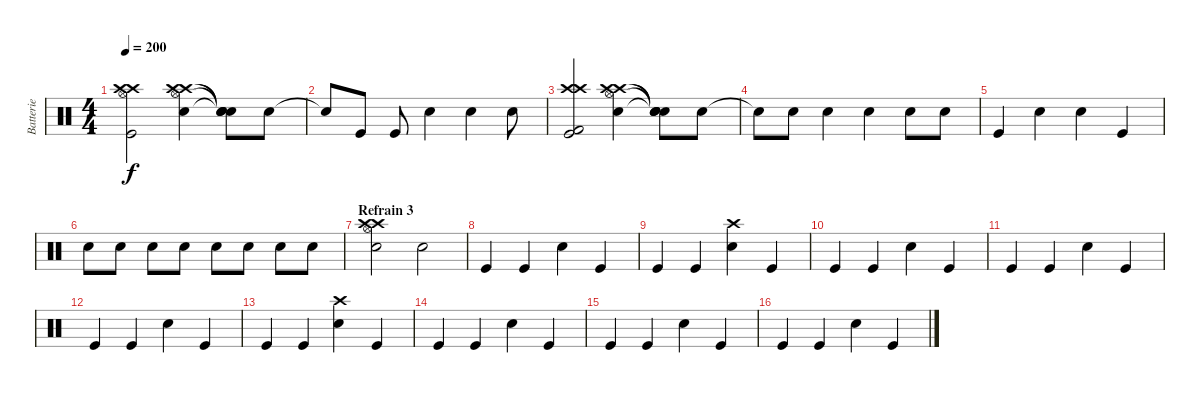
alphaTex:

\track ("Batterie" "Batterie") {instrument percussion}
\staff {score}
\articulation defaults
\ts (4 4)
\tempo 200
\clef neutral
\ks c
("Kick (hit)" "Crash high (hit)" "Crash high (hit)" "Hi-Hat (open)").2{dy f} ("Electric Snare (hit)" "Crash high (hit)" "Crash high (hit)" "Hi-Hat (open)").4 ("Snare (hit)"{t} "Snare (hit)"{t} "Snare (hit)"{t} "Snare (hit)"{t}).8 "Electric Snare (hit)".8 |
"Electric Snare (hit)"{t}.8 "Kick (hit)".8 "Kick (hit)".8 "Electric Snare (hit)".4 "Electric Snare (hit)".4 "Electric Snare (hit)".8 |
("Kick (hit)" "Crash high (hit)" "Crash high (hit)" "Kick (hit) 2").2 ("Electric Snare (hit)" "Crash high (hit)" "Crash high (hit)" "Hi-Hat (open)").4 ("Snare (hit)"{t} "Snare (hit)"{t} "Snare (hit)"{t} "Snare (hit)"{t}).8 "Electric Snare (hit)".8 |
"Electric Snare (hit)"{t}.8 "Electric Snare (hit)".8 "Electric Snare (hit)".4 "Electric Snare (hit)".4 "Electric Snare (hit)".8 "Electric Snare (hit)".8 |
"Kick (hit)".4 "Electric Snare (hit)".4 "Electric Snare (hit)".4 "Kick (hit)".4 |
"Electric Snare (hit)".8 "Electric Snare (hit)".8 "Electric Snare (hit)".8 "Electric Snare (hit)".8 "Electric Snare (hit)".8 "Electric Snare (hit)".8 "Electric Snare (hit)".8 "Electric Snare (hit)".8 |
\section ("" "Refrain 3")
("Hi-Hat (open)" "Crash high (hit)" "Crash high (hit)" "Electric Snare (hit)").2 "Electric Snare (hit)".2 |
"Kick (hit)".4 "Kick (hit)".4 "Electric Snare (hit)".4 "Kick (hit)".4 |
"Kick (hit)".4 "Kick (hit)".4 ("Electric Snare (hit)" "Crash high (hit)").4 "Kick (hit)".4 |
"Kick (hit)".4 "Kick (hit)".4 "Electric Snare (hit)".4 "Kick (hit)".4 |
"Kick (hit)".4 "Kick (hit)".4 "Electric Snare (hit)".4 "Kick (hit)".4 |
"Kick (hit)".4 "Kick (hit)".4 "Electric Snare (hit)".4 "Kick (hit)".4 |
"Kick (hit)".4 "Kick (hit)".4 ("Electric Snare (hit)" "Crash high (hit)").4 "Kick (hit)".4 |
"Kick (hit)".4 "Kick (hit)".4 "Electric Snare (hit)".4 "Kick (hit)".4 |
"Kick (hit)".4 "Kick (hit)".4 "Electric Snare (hit)".4 "Kick (hit)".4 |
"Kick (hit)".4 "Kick (hit)".4 "Electric Snare (hit)".4 "Kick (hit)".4
